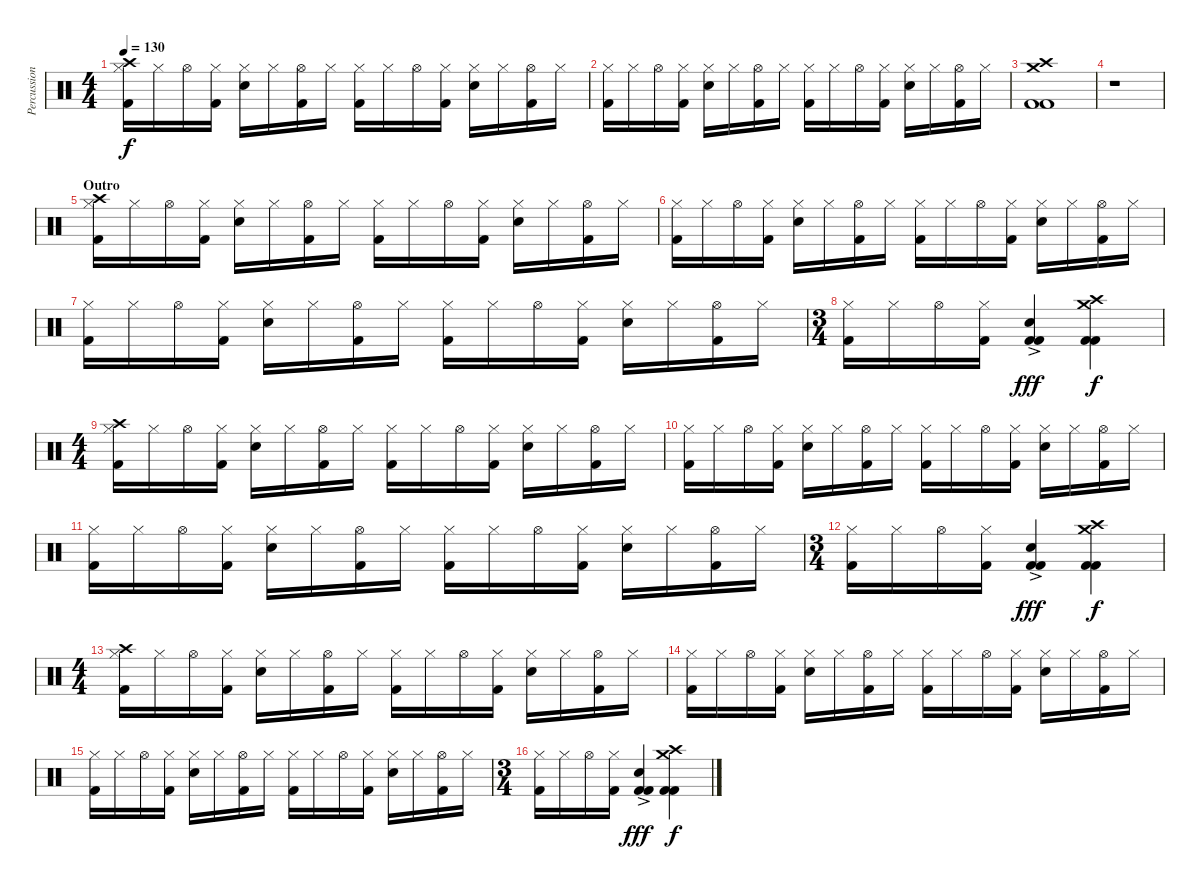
\track ("Percussion" "Percussion") {instrument percussion}
\staff {score}
\articulation defaults
\ts (4 4)
\tempo 130
\clef neutral
\ks c
("Hi-Hat (closed)" "Crash high (hit)" "Kick (hit) 2").16{dy f} "Hi-Hat (closed)".16 "Hi-Hat (open)".16 ("Hi-Hat (closed)" "Kick (hit) 2").16 ("Hi-Hat (closed)" "Snare (hit) 2").16 "Hi-Hat (closed)".16 ("Hi-Hat (open)" "Kick (hit) 2").16 "Hi-Hat (closed)".16 ("Hi-Hat (closed)" "Kick (hit) 2").16 "Hi-Hat (closed)".16 "Hi-Hat (open)".16 ("Hi-Hat (closed)" "Kick (hit) 2").16 ("Hi-Hat (closed)" "Snare (hit) 2").16 "Hi-Hat (closed)".16 ("Hi-Hat (open)" "Kick (hit) 2").16 "Hi-Hat (closed)".16 |
("Hi-Hat (closed)" "Kick (hit) 2").16 "Hi-Hat (closed)".16 "Hi-Hat (open)".16 ("Hi-Hat (closed)" "Kick (hit) 2").16 ("Hi-Hat (closed)" "Snare (hit) 2").16 "Hi-Hat (closed)".16 ("Hi-Hat (open)" "Kick (hit) 2").16 "Hi-Hat (closed)".16 ("Hi-Hat (closed)" "Kick (hit) 2").16 "Hi-Hat (closed)".16 "Hi-Hat (open)".16 ("Hi-Hat (closed)" "Kick (hit) 2").16 ("Hi-Hat (closed)" "Snare (hit) 2").16 "Hi-Hat (closed)".16 ("Hi-Hat (open)" "Kick (hit) 2").16 "Hi-Hat (closed)".16 |
("Crash high (hit)" "Crash medium (hit)" "Kick (hit) 2" "Kick (hit) 2").1 |
r.1 |
\section ("" "Outro")
("Hi-Hat (closed)" "Crash high (hit)" "Kick (hit) 2").16 "Hi-Hat (closed)".16 "Hi-Hat (open)".16 ("Hi-Hat (closed)" "Kick (hit) 2").16 ("Hi-Hat (closed)" "Snare (hit) 2").16 "Hi-Hat (closed)".16 ("Hi-Hat (open)" "Kick (hit) 2").16 "Hi-Hat (closed)".16 ("Hi-Hat (closed)" "Kick (hit) 2").16 "Hi-Hat (closed)".16 "Hi-Hat (open)".16 ("Hi-Hat (closed)" "Kick (hit) 2").16 ("Hi-Hat (closed)" "Snare (hit) 2").16 "Hi-Hat (closed)".16 ("Hi-Hat (open)" "Kick (hit) 2").16 "Hi-Hat (closed)".16 |
("Hi-Hat (closed)" "Kick (hit) 2").16 "Hi-Hat (closed)".16 "Hi-Hat (open)".16 ("Hi-Hat (closed)" "Kick (hit) 2").16 ("Hi-Hat (closed)" "Snare (hit) 2").16 "Hi-Hat (closed)".16 ("Hi-Hat (open)" "Kick (hit) 2").16 "Hi-Hat (closed)".16 ("Hi-Hat (closed)" "Kick (hit) 2").16 "Hi-Hat (closed)".16 "Hi-Hat (open)".16 ("Hi-Hat (closed)" "Kick (hit) 2").16 ("Hi-Hat (closed)" "Snare (hit) 2").16 "Hi-Hat (closed)".16 ("Hi-Hat (open)" "Kick (hit) 2").16 "Hi-Hat (closed)".16 |
("Hi-Hat (closed)" "Kick (hit) 2").16 "Hi-Hat (closed)".16 "Hi-Hat (open)".16 ("Hi-Hat (closed)" "Kick (hit) 2").16 ("Hi-Hat (closed)" "Snare (hit) 2").16 "Hi-Hat (closed)".16 ("Hi-Hat (open)" "Kick (hit) 2").16 "Hi-Hat (closed)".16 ("Hi-Hat (closed)" "Kick (hit) 2").16 "Hi-Hat (closed)".16 "Hi-Hat (open)".16 ("Hi-Hat (closed)" "Kick (hit) 2").16 ("Hi-Hat (closed)" "Snare (hit) 2").16 "Hi-Hat (closed)".16 ("Hi-Hat (open)" "Kick (hit) 2").16 "Hi-Hat (closed)".16 |
\ts (3 4)
("Hi-Hat (closed)" "Kick (hit) 2").16 "Hi-Hat (closed)".16 "Hi-Hat (open)".16 ("Hi-Hat (closed)" "Kick (hit) 2").16 ("Snare (hit) 2"{ac} "Kick (hit) 2" "Kick (hit) 2").4{dy fff} ("Crash high (hit)" "Crash medium (hit)" "Kick (hit) 2" "Kick (hit) 2").4{dy f} |
\ts (4 4)
("Hi-Hat (closed)" "Crash high (hit)" "Kick (hit) 2").16 "Hi-Hat (closed)".16 "Hi-Hat (open)".16 ("Hi-Hat (closed)" "Kick (hit) 2").16 ("Hi-Hat (closed)" "Snare (hit) 2").16 "Hi-Hat (closed)".16 ("Hi-Hat (open)" "Kick (hit) 2").16 "Hi-Hat (closed)".16 ("Hi-Hat (closed)" "Kick (hit) 2").16 "Hi-Hat (closed)".16 "Hi-Hat (open)".16 ("Hi-Hat (closed)" "Kick (hit) 2").16 ("Hi-Hat (closed)" "Snare (hit) 2").16 "Hi-Hat (closed)".16 ("Hi-Hat (open)" "Kick (hit) 2").16 "Hi-Hat (closed)".16 |
("Hi-Hat (closed)" "Kick (hit) 2").16 "Hi-Hat (closed)".16 "Hi-Hat (open)".16 ("Hi-Hat (closed)" "Kick (hit) 2").16 ("Hi-Hat (closed)" "Snare (hit) 2").16 "Hi-Hat (closed)".16 ("Hi-Hat (open)" "Kick (hit) 2").16 "Hi-Hat (closed)".16 ("Hi-Hat (closed)" "Kick (hit) 2").16 "Hi-Hat (closed)".16 "Hi-Hat (open)".16 ("Hi-Hat (closed)" "Kick (hit) 2").16 ("Hi-Hat (closed)" "Snare (hit) 2").16 "Hi-Hat (closed)".16 ("Hi-Hat (open)" "Kick (hit) 2").16 "Hi-Hat (closed)".16 |
("Hi-Hat (closed)" "Kick (hit) 2").16 "Hi-Hat (closed)".16 "Hi-Hat (open)".16 ("Hi-Hat (closed)" "Kick (hit) 2").16 ("Hi-Hat (closed)" "Snare (hit) 2").16 "Hi-Hat (closed)".16 ("Hi-Hat (open)" "Kick (hit) 2").16 "Hi-Hat (closed)".16 ("Hi-Hat (closed)" "Kick (hit) 2").16 "Hi-Hat (closed)".16 "Hi-Hat (open)".16 ("Hi-Hat (closed)" "Kick (hit) 2").16 ("Hi-Hat (closed)" "Snare (hit) 2").16 "Hi-Hat (closed)".16 ("Hi-Hat (open)" "Kick (hit) 2").16 "Hi-Hat (closed)".16 |
\ts (3 4)
("Hi-Hat (closed)" "Kick (hit) 2").16 "Hi-Hat (closed)".16 "Hi-Hat (open)".16 ("Hi-Hat (closed)" "Kick (hit) 2").16 ("Snare (hit) 2"{ac} "Kick (hit) 2" "Kick (hit) 2").4{dy fff} ("Crash high (hit)" "Crash medium (hit)" "Kick (hit) 2" "Kick (hit) 2").4{dy f} |
\ts (4 4)
("Hi-Hat (closed)" "Crash high (hit)" "Kick (hit) 2").16 "Hi-Hat (closed)".16 "Hi-Hat (open)".16 ("Hi-Hat (closed)" "Kick (hit) 2").16 ("Hi-Hat (closed)" "Snare (hit) 2").16 "Hi-Hat (closed)".16 ("Hi-Hat (open)" "Kick (hit) 2").16 "Hi-Hat (closed)".16 ("Hi-Hat (closed)" "Kick (hit) 2").16 "Hi-Hat (closed)".16 "Hi-Hat (open)".16 ("Hi-Hat (closed)" "Kick (hit) 2").16 ("Hi-Hat (closed)" "Snare (hit) 2").16 "Hi-Hat (closed)".16 ("Hi-Hat (open)" "Kick (hit) 2").16 "Hi-Hat (closed)".16 |
("Hi-Hat (closed)" "Kick (hit) 2").16 "Hi-Hat (closed)".16 "Hi-Hat (open)".16 ("Hi-Hat (closed)" "Kick (hit) 2").16 ("Hi-Hat (closed)" "Snare (hit) 2").16 "Hi-Hat (closed)".16 ("Hi-Hat (open)" "Kick (hit) 2").16 "Hi-Hat (closed)".16 ("Hi-Hat (closed)" "Kick (hit) 2").16 "Hi-Hat (closed)".16 "Hi-Hat (open)".16 ("Hi-Hat (closed)" "Kick (hit) 2").16 ("Hi-Hat (closed)" "Snare (hit) 2").16 "Hi-Hat (closed)".16 ("Hi-Hat (open)" "Kick (hit) 2").16 "Hi-Hat (closed)".16 |
("Hi-Hat (closed)" "Kick (hit) 2").16 "Hi-Hat (closed)".16 "Hi-Hat (open)".16 ("Hi-Hat (closed)" "Kick (hit) 2").16 ("Hi-Hat (closed)" "Snare (hit) 2").16 "Hi-Hat (closed)".16 ("Hi-Hat (open)" "Kick (hit) 2").16 "Hi-Hat (closed)".16 ("Hi-Hat (closed)" "Kick (hit) 2").16 "Hi-Hat (closed)".16 "Hi-Hat (open)".16 ("Hi-Hat (closed)" "Kick (hit) 2").16 ("Hi-Hat (closed)" "Snare (hit) 2").16 "Hi-Hat (closed)".16 ("Hi-Hat (open)" "Kick (hit) 2").16 "Hi-Hat (closed)".16 |
\ts (3 4)
("Hi-Hat (closed)" "Kick (hit) 2").16 "Hi-Hat (closed)".16 "Hi-Hat (open)".16 ("Hi-Hat (closed)" "Kick (hit) 2").16 ("Snare (hit) 2"{ac} "Kick (hit) 2" "Kick (hit) 2").4{dy fff} ("Crash high (hit)" "Crash medium (hit)" "Kick (hit) 2" "Kick (hit) 2").4{dy f}
